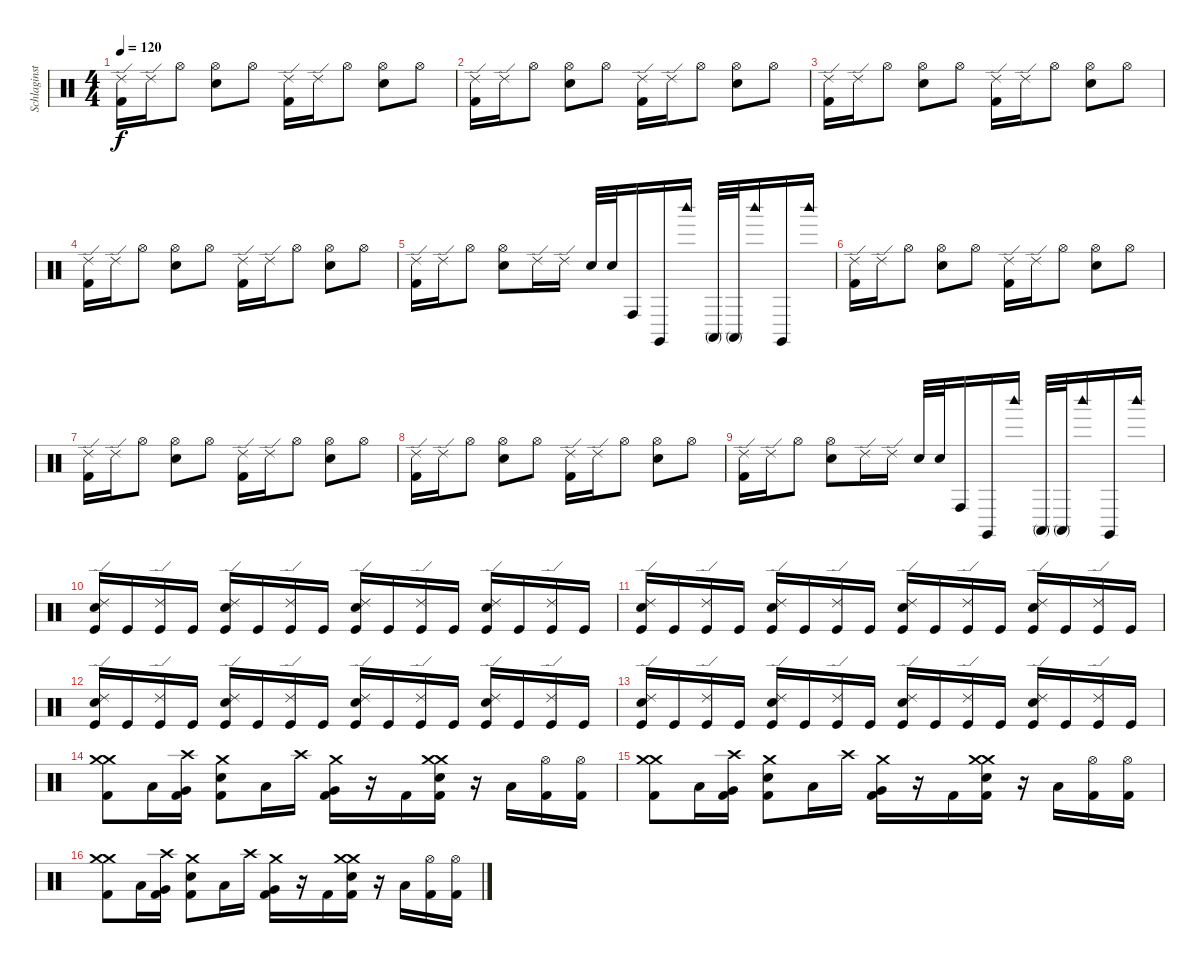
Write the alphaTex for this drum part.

\track ("Schlaginstrumente - Auswahl" "Schlaginst") {instrument percussion}
\staff {score}
\articulation defaults
\ts (4 4)
\tempo 120
\clef neutral
\ks c
("Ride (edge) 2" "Kick (hit) 2").16{dy f} "Ride (edge) 2".16 "Hi-Hat (open)".8 ("Hi-Hat (open)" "Electric Snare (hit)").8 "Hi-Hat (open)".8 ("Ride (edge) 2" "Kick (hit) 2").16 "Ride (edge) 2".16 "Hi-Hat (open)".8 ("Hi-Hat (open)" "Electric Snare (hit)").8 "Hi-Hat (open)".8 |
("Ride (edge) 2" "Kick (hit) 2").16 "Ride (edge) 2".16 "Hi-Hat (open)".8 ("Hi-Hat (open)" "Electric Snare (hit)").8 "Hi-Hat (open)".8 ("Ride (edge) 2" "Kick (hit) 2").16 "Ride (edge) 2".16 "Hi-Hat (open)".8 ("Hi-Hat (open)" "Electric Snare (hit)").8 "Hi-Hat (open)".8 |
("Ride (edge) 2" "Kick (hit) 2").16 "Ride (edge) 2".16 "Hi-Hat (open)".8 ("Hi-Hat (open)" "Electric Snare (hit)").8 "Hi-Hat (open)".8 ("Ride (edge) 2" "Kick (hit) 2").16 "Ride (edge) 2".16 "Hi-Hat (open)".8 ("Hi-Hat (open)" "Electric Snare (hit)").8 "Hi-Hat (open)".8 |
("Ride (edge) 2" "Kick (hit) 2").16 "Ride (edge) 2".16 "Hi-Hat (open)".8 ("Hi-Hat (open)" "Electric Snare (hit)").8 "Hi-Hat (open)".8 ("Ride (edge) 2" "Kick (hit) 2").16 "Ride (edge) 2".16 "Hi-Hat (open)".8 ("Hi-Hat (open)" "Electric Snare (hit)").8 "Hi-Hat (open)".8 |
("Ride (edge) 2" "Kick (hit) 2").16 "Ride (edge) 2".16 "Hi-Hat (open)".8 ("Hi-Hat (open)" "Electric Snare (hit)").8 "Ride (edge) 2".16 "Ride (edge) 2".16 "Electric Snare (hit)".32 "Electric Snare (hit)".32 "Conga high (hit)".16 "Claves (hit)".16 "Woodblock high (hit)".16 "Conga high (mute)".32 "Conga high (mute)".32 "Woodblock high (hit)".16 "Claves (hit)".16 "Woodblock high (hit)".16 |
("Ride (edge) 2" "Kick (hit) 2").16 "Ride (edge) 2".16 "Hi-Hat (open)".8 ("Hi-Hat (open)" "Electric Snare (hit)").8 "Hi-Hat (open)".8 ("Ride (edge) 2" "Kick (hit) 2").16 "Ride (edge) 2".16 "Hi-Hat (open)".8 ("Hi-Hat (open)" "Electric Snare (hit)").8 "Hi-Hat (open)".8 |
("Ride (edge) 2" "Kick (hit) 2").16 "Ride (edge) 2".16 "Hi-Hat (open)".8 ("Hi-Hat (open)" "Electric Snare (hit)").8 "Hi-Hat (open)".8 ("Ride (edge) 2" "Kick (hit) 2").16 "Ride (edge) 2".16 "Hi-Hat (open)".8 ("Hi-Hat (open)" "Electric Snare (hit)").8 "Hi-Hat (open)".8 |
("Ride (edge) 2" "Kick (hit) 2").16 "Ride (edge) 2".16 "Hi-Hat (open)".8 ("Hi-Hat (open)" "Electric Snare (hit)").8 "Hi-Hat (open)".8 ("Ride (edge) 2" "Kick (hit) 2").16 "Ride (edge) 2".16 "Hi-Hat (open)".8 ("Hi-Hat (open)" "Electric Snare (hit)").8 "Hi-Hat (open)".8 |
("Ride (edge) 2" "Kick (hit) 2").16 "Ride (edge) 2".16 "Hi-Hat (open)".8 ("Hi-Hat (open)" "Electric Snare (hit)").8 "Ride (edge) 2".16 "Ride (edge) 2".16 "Electric Snare (hit)".32 "Electric Snare (hit)".32 "Conga high (hit)".16 "Claves (hit)".16 "Woodblock high (hit)".16 "Conga high (mute)".32 "Conga high (mute)".32 "Woodblock high (hit)".16 "Claves (hit)".16 "Woodblock high (hit)".16 |
("Ride (edge) 2" "Electric Snare (hit)" "Kick (hit)").16 "Kick (hit)".16 ("Ride (edge) 2" "Kick (hit)").16 "Kick (hit)".16 ("Ride (edge) 2" "Electric Snare (hit)" "Kick (hit)").16 "Kick (hit)".16 ("Ride (edge) 2" "Kick (hit)").16 "Kick (hit)".16 ("Ride (edge) 2" "Electric Snare (hit)" "Kick (hit)").16 "Kick (hit)".16 ("Ride (edge) 2" "Kick (hit)").16 "Kick (hit)".16 ("Ride (edge) 2" "Electric Snare (hit)" "Kick (hit)").16 "Kick (hit)".16 ("Ride (edge) 2" "Kick (hit)").16 "Kick (hit)".16 |
("Ride (edge) 2" "Electric Snare (hit)" "Kick (hit)").16 "Kick (hit)".16 ("Ride (edge) 2" "Kick (hit)").16 "Kick (hit)".16 ("Ride (edge) 2" "Electric Snare (hit)" "Kick (hit)").16 "Kick (hit)".16 ("Ride (edge) 2" "Kick (hit)").16 "Kick (hit)".16 ("Ride (edge) 2" "Electric Snare (hit)" "Kick (hit)").16 "Kick (hit)".16 ("Ride (edge) 2" "Kick (hit)").16 "Kick (hit)".16 ("Ride (edge) 2" "Electric Snare (hit)" "Kick (hit)").16 "Kick (hit)".16 ("Ride (edge) 2" "Kick (hit)").16 "Kick (hit)".16 |
("Ride (edge) 2" "Electric Snare (hit)" "Kick (hit)").16 "Kick (hit)".16 ("Ride (edge) 2" "Kick (hit)").16 "Kick (hit)".16 ("Ride (edge) 2" "Electric Snare (hit)" "Kick (hit)").16 "Kick (hit)".16 ("Ride (edge) 2" "Kick (hit)").16 "Kick (hit)".16 ("Ride (edge) 2" "Electric Snare (hit)" "Kick (hit)").16 "Kick (hit)".16 ("Ride (edge) 2" "Kick (hit)").16 "Kick (hit)".16 ("Ride (edge) 2" "Electric Snare (hit)" "Kick (hit)").16 "Kick (hit)".16 ("Ride (edge) 2" "Kick (hit)").16 "Kick (hit)".16 |
("Ride (edge) 2" "Electric Snare (hit)" "Kick (hit)").16 "Kick (hit)".16 ("Ride (edge) 2" "Kick (hit)").16 "Kick (hit)".16 ("Ride (edge) 2" "Electric Snare (hit)" "Kick (hit)").16 "Kick (hit)".16 ("Ride (edge) 2" "Kick (hit)").16 "Kick (hit)".16 ("Ride (edge) 2" "Electric Snare (hit)" "Kick (hit)").16 "Kick (hit)".16 ("Ride (edge) 2" "Kick (hit)").16 "Kick (hit)".16 ("Ride (edge) 2" "Electric Snare (hit)" "Kick (hit)").16 "Kick (hit)".16 ("Ride (edge) 2" "Kick (hit)").16 "Kick (hit)".16 |
("Crash medium (hit)" "Kick (hit) 2" "Crash medium (hit)").8 "Low Tom (hit)".16 ("Very Low Tom (hit)" "Kick (hit) 2" "Crash high (hit)").16 ("Electric Snare (hit)" "Kick (hit) 2" "Crash medium (hit)").8 "Low Tom (hit)".16 "Crash high (hit)".16 ("Very Low Tom (hit)" "Kick (hit) 2" "Crash medium (hit)").16 r.16 "Kick (hit) 2".16 ("Crash medium (hit)" "Electric Snare (hit)" "Kick (hit) 2" "Crash medium (hit)").16 r.16 "Low Tom (hit)".16 ("Kick (hit) 2" "Hi-Hat (open)").16 ("Kick (hit) 2" "Hi-Hat (open)").16 |
("Crash medium (hit)" "Kick (hit) 2" "Crash medium (hit)").8 "Low Tom (hit)".16 ("Very Low Tom (hit)" "Kick (hit) 2" "Crash high (hit)").16 ("Electric Snare (hit)" "Kick (hit) 2" "Crash medium (hit)").8 "Low Tom (hit)".16 "Crash high (hit)".16 ("Very Low Tom (hit)" "Kick (hit) 2" "Crash medium (hit)").16 r.16 "Kick (hit) 2".16 ("Crash medium (hit)" "Electric Snare (hit)" "Kick (hit) 2" "Crash medium (hit)").16 r.16 "Low Tom (hit)".16 ("Kick (hit) 2" "Hi-Hat (open)").16 ("Kick (hit) 2" "Hi-Hat (open)").16 |
("Crash medium (hit)" "Kick (hit) 2" "Crash medium (hit)").8 "Low Tom (hit)".16 ("Very Low Tom (hit)" "Kick (hit) 2" "Crash high (hit)").16 ("Electric Snare (hit)" "Kick (hit) 2" "Crash medium (hit)").8 "Low Tom (hit)".16 "Crash high (hit)".16 ("Very Low Tom (hit)" "Kick (hit) 2" "Crash medium (hit)").16 r.16 "Kick (hit) 2".16 ("Crash medium (hit)" "Electric Snare (hit)" "Kick (hit) 2" "Crash medium (hit)").16 r.16 "Low Tom (hit)".16 ("Kick (hit) 2" "Hi-Hat (open)").16 ("Kick (hit) 2" "Hi-Hat (open)").16
